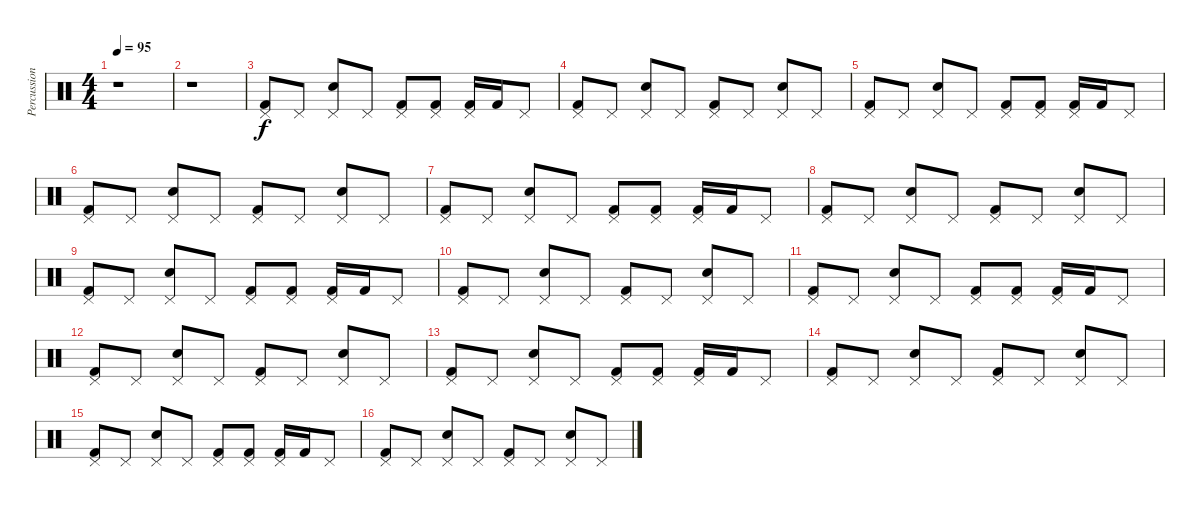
\track ("Percussions" "Percussion") {instrument percussion}
\staff {score}
\articulation defaults
\ts (4 4)
\tempo 95
\clef neutral
\ks c
r.1{dy f} |
r.1 |
("Pedal Hi-Hat (hit)" "Kick (hit) 2").8 "Pedal Hi-Hat (hit)".8 ("Pedal Hi-Hat (hit)" "Electric Snare (hit)").8 "Pedal Hi-Hat (hit)".8 ("Pedal Hi-Hat (hit)" "Kick (hit) 2").8 ("Pedal Hi-Hat (hit)" "Kick (hit) 2").8 ("Pedal Hi-Hat (hit)" "Kick (hit) 2").16 "Kick (hit) 2".16 "Pedal Hi-Hat (hit)".8 |
("Pedal Hi-Hat (hit)" "Kick (hit) 2").8 "Pedal Hi-Hat (hit)".8 ("Pedal Hi-Hat (hit)" "Electric Snare (hit)").8 "Pedal Hi-Hat (hit)".8 ("Pedal Hi-Hat (hit)" "Kick (hit) 2").8 "Pedal Hi-Hat (hit)".8 ("Pedal Hi-Hat (hit)" "Electric Snare (hit)").8 "Pedal Hi-Hat (hit)".8 |
("Pedal Hi-Hat (hit)" "Kick (hit) 2").8 "Pedal Hi-Hat (hit)".8 ("Pedal Hi-Hat (hit)" "Electric Snare (hit)").8 "Pedal Hi-Hat (hit)".8 ("Pedal Hi-Hat (hit)" "Kick (hit) 2").8 ("Pedal Hi-Hat (hit)" "Kick (hit) 2").8 ("Pedal Hi-Hat (hit)" "Kick (hit) 2").16 "Kick (hit) 2".16 "Pedal Hi-Hat (hit)".8 |
("Pedal Hi-Hat (hit)" "Kick (hit) 2").8 "Pedal Hi-Hat (hit)".8 ("Pedal Hi-Hat (hit)" "Electric Snare (hit)").8 "Pedal Hi-Hat (hit)".8 ("Pedal Hi-Hat (hit)" "Kick (hit) 2").8 "Pedal Hi-Hat (hit)".8 ("Pedal Hi-Hat (hit)" "Electric Snare (hit)").8 "Pedal Hi-Hat (hit)".8 |
("Pedal Hi-Hat (hit)" "Kick (hit) 2").8 "Pedal Hi-Hat (hit)".8 ("Pedal Hi-Hat (hit)" "Electric Snare (hit)").8 "Pedal Hi-Hat (hit)".8 ("Pedal Hi-Hat (hit)" "Kick (hit) 2").8 ("Pedal Hi-Hat (hit)" "Kick (hit) 2").8 ("Pedal Hi-Hat (hit)" "Kick (hit) 2").16 "Kick (hit) 2".16 "Pedal Hi-Hat (hit)".8 |
("Pedal Hi-Hat (hit)" "Kick (hit) 2").8 "Pedal Hi-Hat (hit)".8 ("Pedal Hi-Hat (hit)" "Electric Snare (hit)").8 "Pedal Hi-Hat (hit)".8 ("Pedal Hi-Hat (hit)" "Kick (hit) 2").8 "Pedal Hi-Hat (hit)".8 ("Pedal Hi-Hat (hit)" "Electric Snare (hit)").8 "Pedal Hi-Hat (hit)".8 |
("Pedal Hi-Hat (hit)" "Kick (hit) 2").8 "Pedal Hi-Hat (hit)".8 ("Pedal Hi-Hat (hit)" "Electric Snare (hit)").8 "Pedal Hi-Hat (hit)".8 ("Pedal Hi-Hat (hit)" "Kick (hit) 2").8 ("Pedal Hi-Hat (hit)" "Kick (hit) 2").8 ("Pedal Hi-Hat (hit)" "Kick (hit) 2").16 "Kick (hit) 2".16 "Pedal Hi-Hat (hit)".8 |
("Pedal Hi-Hat (hit)" "Kick (hit) 2").8 "Pedal Hi-Hat (hit)".8 ("Pedal Hi-Hat (hit)" "Electric Snare (hit)").8 "Pedal Hi-Hat (hit)".8 ("Pedal Hi-Hat (hit)" "Kick (hit) 2").8 "Pedal Hi-Hat (hit)".8 ("Pedal Hi-Hat (hit)" "Electric Snare (hit)").8 "Pedal Hi-Hat (hit)".8 |
("Pedal Hi-Hat (hit)" "Kick (hit) 2").8 "Pedal Hi-Hat (hit)".8 ("Pedal Hi-Hat (hit)" "Electric Snare (hit)").8 "Pedal Hi-Hat (hit)".8 ("Pedal Hi-Hat (hit)" "Kick (hit) 2").8 ("Pedal Hi-Hat (hit)" "Kick (hit) 2").8 ("Pedal Hi-Hat (hit)" "Kick (hit) 2").16 "Kick (hit) 2".16 "Pedal Hi-Hat (hit)".8 |
("Pedal Hi-Hat (hit)" "Kick (hit) 2").8 "Pedal Hi-Hat (hit)".8 ("Pedal Hi-Hat (hit)" "Electric Snare (hit)").8 "Pedal Hi-Hat (hit)".8 ("Pedal Hi-Hat (hit)" "Kick (hit) 2").8 "Pedal Hi-Hat (hit)".8 ("Pedal Hi-Hat (hit)" "Electric Snare (hit)").8 "Pedal Hi-Hat (hit)".8 |
("Pedal Hi-Hat (hit)" "Kick (hit) 2").8 "Pedal Hi-Hat (hit)".8 ("Pedal Hi-Hat (hit)" "Electric Snare (hit)").8 "Pedal Hi-Hat (hit)".8 ("Pedal Hi-Hat (hit)" "Kick (hit) 2").8 ("Pedal Hi-Hat (hit)" "Kick (hit) 2").8 ("Pedal Hi-Hat (hit)" "Kick (hit) 2").16 "Kick (hit) 2".16 "Pedal Hi-Hat (hit)".8 |
("Pedal Hi-Hat (hit)" "Kick (hit) 2").8 "Pedal Hi-Hat (hit)".8 ("Pedal Hi-Hat (hit)" "Electric Snare (hit)").8 "Pedal Hi-Hat (hit)".8 ("Pedal Hi-Hat (hit)" "Kick (hit) 2").8 "Pedal Hi-Hat (hit)".8 ("Pedal Hi-Hat (hit)" "Electric Snare (hit)").8 "Pedal Hi-Hat (hit)".8 |
("Pedal Hi-Hat (hit)" "Kick (hit) 2").8 "Pedal Hi-Hat (hit)".8 ("Pedal Hi-Hat (hit)" "Electric Snare (hit)").8 "Pedal Hi-Hat (hit)".8 ("Pedal Hi-Hat (hit)" "Kick (hit) 2").8 ("Pedal Hi-Hat (hit)" "Kick (hit) 2").8 ("Pedal Hi-Hat (hit)" "Kick (hit) 2").16 "Kick (hit) 2".16 "Pedal Hi-Hat (hit)".8 |
("Pedal Hi-Hat (hit)" "Kick (hit) 2").8 "Pedal Hi-Hat (hit)".8 ("Pedal Hi-Hat (hit)" "Electric Snare (hit)").8 "Pedal Hi-Hat (hit)".8 ("Pedal Hi-Hat (hit)" "Kick (hit) 2").8 "Pedal Hi-Hat (hit)".8 ("Pedal Hi-Hat (hit)" "Electric Snare (hit)").8 "Pedal Hi-Hat (hit)".8
